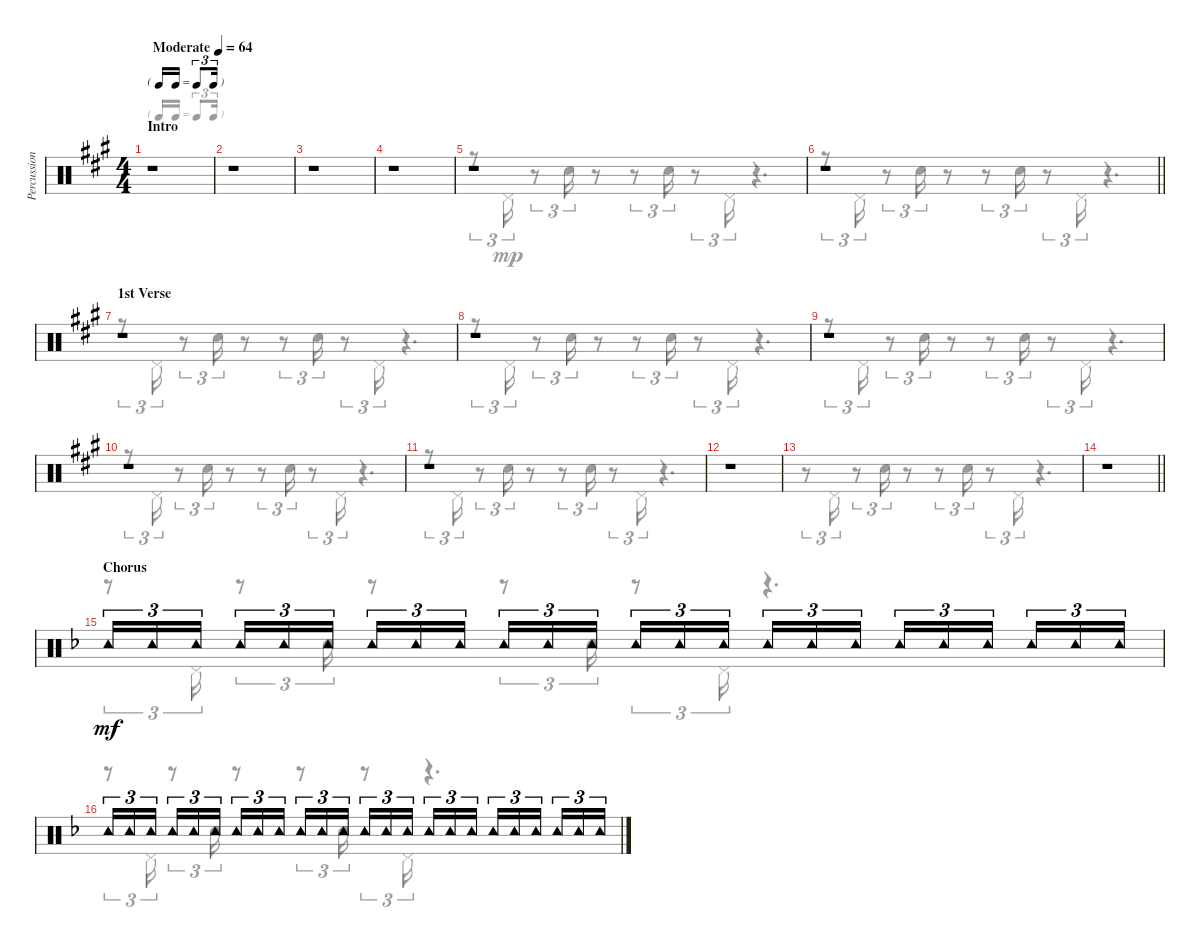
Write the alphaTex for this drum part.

\track ("Percussion" "Percussion") {instrument percussion}
\staff {score}
\articulation defaults
\voice
\ts (4 4)
\tf triplet16th
\section ("" "Intro")
\tempo (64 "Moderate")
\clef neutral
\ks a
r.1{dy mf} |
r.1 |
r.1 |
r.1 |
r.1 |
\barLineRight lightlight
r.1 |
\section ("" "1st Verse")
r.1 |
r.1 |
r.1 |
r.1 |
r.1 |
r.1 |
|
\barLineRight lightlight
r.1 |
\section ("" "Chorus")
\ks f "Tambourine (hit)".16{tu (3 2)} "Tambourine (hit)".16{tu (3 2)} "Tambourine (hit)".16{tu (3 2) beam splitsecondary} "Tambourine (hit)".16{tu (3 2)} "Tambourine (hit)".16{tu (3 2)} "Tambourine (hit)".16{tu (3 2)} "Tambourine (hit)".16{tu (3 2)} "Tambourine (hit)".16{tu (3 2)} "Tambourine (hit)".16{tu (3 2) beam splitsecondary} "Tambourine (hit)".16{tu (3 2)} "Tambourine (hit)".16{tu (3 2)} "Tambourine (hit)".16{tu (3 2)} "Tambourine (hit)".16{tu (3 2)} "Tambourine (hit)".16{tu (3 2)} "Tambourine (hit)".16{tu (3 2) beam splitsecondary} "Tambourine (hit)".16{tu (3 2)} "Tambourine (hit)".16{tu (3 2)} "Tambourine (hit)".16{tu (3 2)} "Tambourine (hit)".16{tu (3 2)} "Tambourine (hit)".16{tu (3 2)} "Tambourine (hit)".16{tu (3 2) beam splitsecondary} "Tambourine (hit)".16{tu (3 2)} "Tambourine (hit)".16{tu (3 2)} "Tambourine (hit)".16{tu (3 2)}
|
"Tambourine (hit)".16{tu (3 2)} "Tambourine (hit)".16{tu (3 2)} "Tambourine (hit)".16{tu (3 2) beam splitsecondary} "Tambourine (hit)".16{tu (3 2)} "Tambourine (hit)".16{tu (3 2)} "Tambourine (hit)".16{tu (3 2)} "Tambourine (hit)".16{tu (3 2)} "Tambourine (hit)".16{tu (3 2)} "Tambourine (hit)".16{tu (3 2) beam splitsecondary} "Tambourine (hit)".16{tu (3 2)} "Tambourine (hit)".16{tu (3 2)} "Tambourine (hit)".16{tu (3 2)} "Tambourine (hit)".16{tu (3 2)} "Tambourine (hit)".16{tu (3 2)} "Tambourine (hit)".16{tu (3 2) beam splitsecondary} "Tambourine (hit)".16{tu (3 2)} "Tambourine (hit)".16{tu (3 2)} "Tambourine (hit)".16{tu (3 2)} "Tambourine (hit)".16{tu (3 2)} "Tambourine (hit)".16{tu (3 2)} "Tambourine (hit)".16{tu (3 2) beam splitsecondary} "Tambourine (hit)".16{tu (3 2)} "Tambourine (hit)".16{tu (3 2)} "Tambourine (hit)".16{tu (3 2)}
\voice
\clef neutral
\ottava regular
\simile none
\ks a
r.1{dy mp} |
r.1 |
r.1 |
r.1 |
r.8{tu (3 2)} "Pedal Hi-Hat (hit)".16{tu (3 2)} r.8{tu (3 2)} "Electric Snare (hit)".16{tu (3 2)} r.8 r.8{tu (3 2)} "Electric Snare (hit)".16{tu (3 2)} r.8{tu (3 2)} "Pedal Hi-Hat (hit)".16{tu (3 2)} r.4{d} |
\barLineRight lightlight
r.8{tu (3 2)} "Pedal Hi-Hat (hit)".16{tu (3 2)} r.8{tu (3 2)} "Electric Snare (hit)".16{tu (3 2)} r.8 r.8{tu (3 2)} "Electric Snare (hit)".16{tu (3 2)} r.8{tu (3 2)} "Pedal Hi-Hat (hit)".16{tu (3 2)} r.4{d} |
r.8{tu (3 2)} "Pedal Hi-Hat (hit)".16{tu (3 2)} r.8{tu (3 2)} "Electric Snare (hit)".16{tu (3 2)} r.8 r.8{tu (3 2)} "Electric Snare (hit)".16{tu (3 2)} r.8{tu (3 2)} "Pedal Hi-Hat (hit)".16{tu (3 2)} r.4{d} |
r.8{tu (3 2)} "Pedal Hi-Hat (hit)".16{tu (3 2)} r.8{tu (3 2)} "Electric Snare (hit)".16{tu (3 2)} r.8 r.8{tu (3 2)} "Electric Snare (hit)".16{tu (3 2)} r.8{tu (3 2)} "Pedal Hi-Hat (hit)".16{tu (3 2)} r.4{d} |
r.8{tu (3 2)} "Pedal Hi-Hat (hit)".16{tu (3 2)} r.8{tu (3 2)} "Electric Snare (hit)".16{tu (3 2)} r.8 r.8{tu (3 2)} "Electric Snare (hit)".16{tu (3 2)} r.8{tu (3 2)} "Pedal Hi-Hat (hit)".16{tu (3 2)} r.4{d} |
r.8{tu (3 2)} "Pedal Hi-Hat (hit)".16{tu (3 2)} r.8{tu (3 2)} "Electric Snare (hit)".16{tu (3 2)} r.8 r.8{tu (3 2)} "Electric Snare (hit)".16{tu (3 2)} r.8{tu (3 2)} "Pedal Hi-Hat (hit)".16{tu (3 2)} r.4{d} |
r.8{tu (3 2)} "Pedal Hi-Hat (hit)".16{tu (3 2)} r.8{tu (3 2)} "Electric Snare (hit)".16{tu (3 2)} r.8 r.8{tu (3 2)} "Electric Snare (hit)".16{tu (3 2)} r.8{tu (3 2)} "Pedal Hi-Hat (hit)".16{tu (3 2)} r.4{d} |
r.1 |
r.8{tu (3 2)} "Pedal Hi-Hat (hit)".16{tu (3 2)} r.8{tu (3 2)} "Electric Snare (hit)".16{tu (3 2)} r.8 r.8{tu (3 2)} "Electric Snare (hit)".16{tu (3 2)} r.8{tu (3 2)} "Pedal Hi-Hat (hit)".16{tu (3 2)} r.4{d} |
\barLineRight lightlight
r.1 |
\ks f
r.8{tu (3 2)} "Pedal Hi-Hat (hit)".16{tu (3 2)} r.8{tu (3 2)} "Electric Snare (hit)".16{tu (3 2)} r.8 r.8{tu (3 2)} "Electric Snare (hit)".16{tu (3 2)} r.8{tu (3 2)} "Pedal Hi-Hat (hit)".16{tu (3 2)} r.4{d} |
r.8{tu (3 2)} "Pedal Hi-Hat (hit)".16{tu (3 2)} r.8{tu (3 2)} "Electric Snare (hit)".16{tu (3 2)} r.8 r.8{tu (3 2)} "Electric Snare (hit)".16{tu (3 2)} r.8{tu (3 2)} "Pedal Hi-Hat (hit)".16{tu (3 2)} r.4{d}
